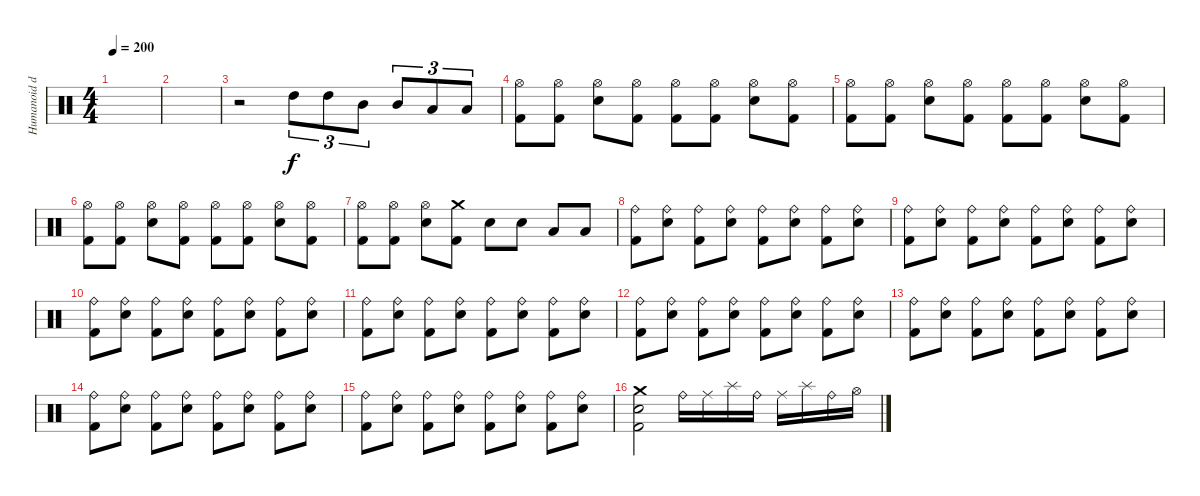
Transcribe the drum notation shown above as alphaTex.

\track ("Humanoid drum machine" "Humanoid d") {instrument percussion}
\staff {score}
\articulation defaults
\ts (4 4)
\tempo 200
\clef neutral
\ks c
|
|
r.2 "High Tom (hit)".8{tu (3 2)} "High Tom (hit)".8{tu (3 2)} "Mid Tom (hit)".8{tu (3 2)} "Mid Tom (hit)".8{tu (3 2)} "Low Tom (hit)".8{tu (3 2)} "Low Tom (hit)".8{tu (3 2)} |
("Hi-Hat (open)" "Kick (hit) 2").8 ("Hi-Hat (open)" "Kick (hit) 2").8 ("Hi-Hat (open)" "Electric Snare (hit)").8 ("Hi-Hat (open)" "Kick (hit) 2").8 ("Hi-Hat (open)" "Kick (hit) 2").8 ("Hi-Hat (open)" "Kick (hit) 2").8 ("Hi-Hat (open)" "Electric Snare (hit)").8 ("Hi-Hat (open)" "Kick (hit) 2").8 |
("Hi-Hat (open)" "Kick (hit) 2").8 ("Hi-Hat (open)" "Kick (hit) 2").8 ("Hi-Hat (open)" "Electric Snare (hit)").8 ("Hi-Hat (open)" "Kick (hit) 2").8 ("Hi-Hat (open)" "Kick (hit) 2").8 ("Hi-Hat (open)" "Kick (hit) 2").8 ("Hi-Hat (open)" "Electric Snare (hit)").8 ("Hi-Hat (open)" "Kick (hit) 2").8 |
("Hi-Hat (open)" "Kick (hit) 2").8 ("Hi-Hat (open)" "Kick (hit) 2").8 ("Hi-Hat (open)" "Electric Snare (hit)").8 ("Hi-Hat (open)" "Kick (hit) 2").8 ("Hi-Hat (open)" "Kick (hit) 2").8 ("Hi-Hat (open)" "Kick (hit) 2").8 ("Hi-Hat (open)" "Electric Snare (hit)").8 ("Hi-Hat (open)" "Kick (hit) 2").8 |
("Hi-Hat (open)" "Kick (hit) 2").8 ("Hi-Hat (open)" "Kick (hit) 2").8 ("Hi-Hat (open)" "Electric Snare (hit)").8 ("Crash medium (hit)" "Kick (hit) 2").8 "Electric Snare (hit)".8 "Electric Snare (hit)".8 "Low Tom (hit)".8 "Low Tom (hit)".8 |
("Ride (bell)" "Kick (hit) 2").8 ("Ride (bell)" "Electric Snare (hit)").8 ("Ride (bell)" "Kick (hit) 2").8 ("Ride (bell)" "Electric Snare (hit)").8 ("Ride (bell)" "Kick (hit) 2").8 ("Ride (bell)" "Electric Snare (hit)").8 ("Ride (bell)" "Kick (hit) 2").8 ("Ride (bell)" "Electric Snare (hit)").8 |
("Ride (bell)" "Kick (hit) 2").8 ("Ride (bell)" "Electric Snare (hit)").8 ("Ride (bell)" "Kick (hit) 2").8 ("Ride (bell)" "Electric Snare (hit)").8 ("Ride (bell)" "Kick (hit) 2").8 ("Ride (bell)" "Electric Snare (hit)").8 ("Ride (bell)" "Kick (hit) 2").8 ("Ride (bell)" "Electric Snare (hit)").8 |
("Ride (bell)" "Kick (hit) 2").8 ("Ride (bell)" "Electric Snare (hit)").8 ("Ride (bell)" "Kick (hit) 2").8 ("Ride (bell)" "Electric Snare (hit)").8 ("Ride (bell)" "Kick (hit) 2").8 ("Ride (bell)" "Electric Snare (hit)").8 ("Ride (bell)" "Kick (hit) 2").8 ("Ride (bell)" "Electric Snare (hit)").8 |
("Ride (bell)" "Kick (hit) 2").8 ("Ride (bell)" "Electric Snare (hit)").8 ("Ride (bell)" "Kick (hit) 2").8 ("Ride (bell)" "Electric Snare (hit)").8 ("Ride (bell)" "Kick (hit) 2").8 ("Ride (bell)" "Electric Snare (hit)").8 ("Ride (bell)" "Kick (hit) 2").8 ("Ride (bell)" "Electric Snare (hit)").8 |
("Ride (bell)" "Kick (hit) 2").8 ("Ride (bell)" "Electric Snare (hit)").8 ("Ride (bell)" "Kick (hit) 2").8 ("Ride (bell)" "Electric Snare (hit)").8 ("Ride (bell)" "Kick (hit) 2").8 ("Ride (bell)" "Electric Snare (hit)").8 ("Ride (bell)" "Kick (hit) 2").8 ("Ride (bell)" "Electric Snare (hit)").8 |
("Ride (bell)" "Kick (hit) 2").8 ("Ride (bell)" "Electric Snare (hit)").8 ("Ride (bell)" "Kick (hit) 2").8 ("Ride (bell)" "Electric Snare (hit)").8 ("Ride (bell)" "Kick (hit) 2").8 ("Ride (bell)" "Electric Snare (hit)").8 ("Ride (bell)" "Kick (hit) 2").8 ("Ride (bell)" "Electric Snare (hit)").8 |
("Ride (bell)" "Kick (hit) 2").8 ("Ride (bell)" "Electric Snare (hit)").8 ("Ride (bell)" "Kick (hit) 2").8 ("Ride (bell)" "Electric Snare (hit)").8 ("Ride (bell)" "Kick (hit) 2").8 ("Ride (bell)" "Electric Snare (hit)").8 ("Ride (bell)" "Kick (hit) 2").8 ("Ride (bell)" "Electric Snare (hit)").8 |
("Ride (bell)" "Kick (hit) 2").8 ("Ride (bell)" "Electric Snare (hit)").8 ("Ride (bell)" "Kick (hit) 2").8 ("Ride (bell)" "Electric Snare (hit)").8 ("Ride (bell)" "Kick (hit) 2").8 ("Ride (bell)" "Electric Snare (hit)").8 ("Ride (bell)" "Kick (hit) 2").8 ("Ride (bell)" "Electric Snare (hit)").8 |
("Crash medium (hit)" "Electric Snare (hit)" "Kick (hit) 2").2 "Ride (bell)".16 "Ride (middle)".16 "Splash (hit)".16 "Ride (bell)".16 "Ride (middle)".16 "Splash (hit)".16 "Ride (bell)".16 "Hi-Hat (open)".16
